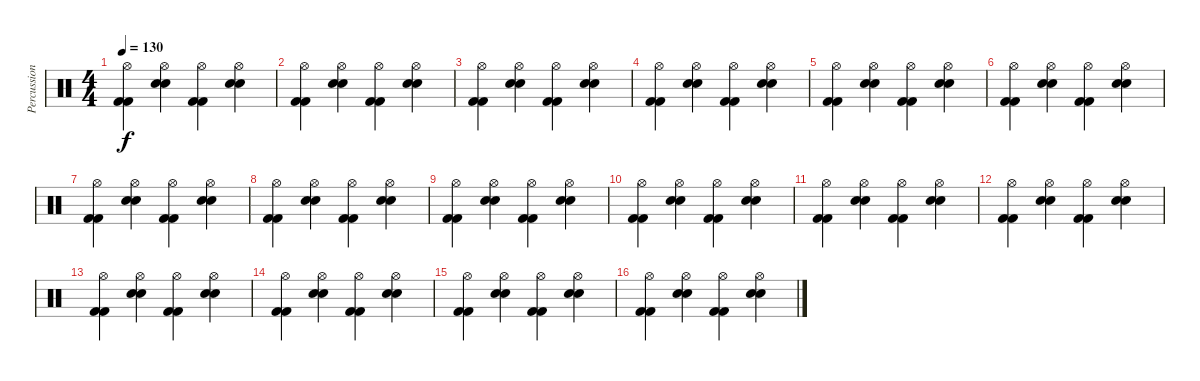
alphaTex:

\track ("Percussion" "Percussion") {instrument percussion}
\staff {score}
\articulation defaults
\ts (4 4)
\tempo 130
\clef neutral
\ks c
("Hi-Hat (open)" "Kick (hit) 2" "Kick (hit) 2").4{dy f} ("Hi-Hat (open)" "Snare (hit) 2" "Snare (hit) 2").4 ("Hi-Hat (open)" "Kick (hit) 2" "Kick (hit) 2").4 ("Hi-Hat (open)" "Snare (hit) 2" "Snare (hit) 2").4 |
("Hi-Hat (open)" "Kick (hit) 2" "Kick (hit) 2").4 ("Hi-Hat (open)" "Snare (hit) 2" "Snare (hit) 2").4 ("Hi-Hat (open)" "Kick (hit) 2" "Kick (hit) 2").4 ("Hi-Hat (open)" "Snare (hit) 2" "Snare (hit) 2").4 |
("Hi-Hat (open)" "Kick (hit) 2" "Kick (hit) 2").4 ("Hi-Hat (open)" "Snare (hit) 2" "Snare (hit) 2").4 ("Hi-Hat (open)" "Kick (hit) 2" "Kick (hit) 2").4 ("Hi-Hat (open)" "Snare (hit) 2" "Snare (hit) 2").4 |
("Hi-Hat (open)" "Kick (hit) 2" "Kick (hit) 2").4 ("Hi-Hat (open)" "Snare (hit) 2" "Snare (hit) 2").4 ("Hi-Hat (open)" "Kick (hit) 2" "Kick (hit) 2").4 ("Hi-Hat (open)" "Snare (hit) 2" "Snare (hit) 2").4 |
("Hi-Hat (open)" "Kick (hit) 2" "Kick (hit) 2").4 ("Hi-Hat (open)" "Snare (hit) 2" "Snare (hit) 2").4 ("Hi-Hat (open)" "Kick (hit) 2" "Kick (hit) 2").4 ("Hi-Hat (open)" "Snare (hit) 2" "Snare (hit) 2").4 |
("Hi-Hat (open)" "Kick (hit) 2" "Kick (hit) 2").4 ("Hi-Hat (open)" "Snare (hit) 2" "Snare (hit) 2").4 ("Hi-Hat (open)" "Kick (hit) 2" "Kick (hit) 2").4 ("Hi-Hat (open)" "Snare (hit) 2" "Snare (hit) 2").4 |
("Hi-Hat (open)" "Kick (hit) 2" "Kick (hit) 2").4 ("Hi-Hat (open)" "Snare (hit) 2" "Snare (hit) 2").4 ("Hi-Hat (open)" "Kick (hit) 2" "Kick (hit) 2").4 ("Hi-Hat (open)" "Snare (hit) 2" "Snare (hit) 2").4 |
("Hi-Hat (open)" "Kick (hit) 2" "Kick (hit) 2").4 ("Hi-Hat (open)" "Snare (hit) 2" "Snare (hit) 2").4 ("Hi-Hat (open)" "Kick (hit) 2" "Kick (hit) 2").4 ("Hi-Hat (open)" "Snare (hit) 2" "Snare (hit) 2").4 |
("Hi-Hat (open)" "Kick (hit) 2" "Kick (hit) 2").4 ("Hi-Hat (open)" "Snare (hit) 2" "Snare (hit) 2").4 ("Hi-Hat (open)" "Kick (hit) 2" "Kick (hit) 2").4 ("Hi-Hat (open)" "Snare (hit) 2" "Snare (hit) 2").4 |
("Hi-Hat (open)" "Kick (hit) 2" "Kick (hit) 2").4 ("Hi-Hat (open)" "Snare (hit) 2" "Snare (hit) 2").4 ("Hi-Hat (open)" "Kick (hit) 2" "Kick (hit) 2").4 ("Hi-Hat (open)" "Snare (hit) 2" "Snare (hit) 2").4 |
("Hi-Hat (open)" "Kick (hit) 2" "Kick (hit) 2").4 ("Hi-Hat (open)" "Snare (hit) 2" "Snare (hit) 2").4 ("Hi-Hat (open)" "Kick (hit) 2" "Kick (hit) 2").4 ("Hi-Hat (open)" "Snare (hit) 2" "Snare (hit) 2").4 |
("Hi-Hat (open)" "Kick (hit) 2" "Kick (hit) 2").4 ("Hi-Hat (open)" "Snare (hit) 2" "Snare (hit) 2").4 ("Hi-Hat (open)" "Kick (hit) 2" "Kick (hit) 2").4 ("Hi-Hat (open)" "Snare (hit) 2" "Snare (hit) 2").4 |
("Hi-Hat (open)" "Kick (hit) 2" "Kick (hit) 2").4 ("Hi-Hat (open)" "Snare (hit) 2" "Snare (hit) 2").4 ("Hi-Hat (open)" "Kick (hit) 2" "Kick (hit) 2").4 ("Hi-Hat (open)" "Snare (hit) 2" "Snare (hit) 2").4 |
("Hi-Hat (open)" "Kick (hit) 2" "Kick (hit) 2").4 ("Hi-Hat (open)" "Snare (hit) 2" "Snare (hit) 2").4 ("Hi-Hat (open)" "Kick (hit) 2" "Kick (hit) 2").4 ("Hi-Hat (open)" "Snare (hit) 2" "Snare (hit) 2").4 |
("Hi-Hat (open)" "Kick (hit) 2" "Kick (hit) 2").4 ("Hi-Hat (open)" "Snare (hit) 2" "Snare (hit) 2").4 ("Hi-Hat (open)" "Kick (hit) 2" "Kick (hit) 2").4 ("Hi-Hat (open)" "Snare (hit) 2" "Snare (hit) 2").4 |
("Hi-Hat (open)" "Kick (hit) 2" "Kick (hit) 2").4 ("Hi-Hat (open)" "Snare (hit) 2" "Snare (hit) 2").4 ("Hi-Hat (open)" "Kick (hit) 2" "Kick (hit) 2").4 ("Hi-Hat (open)" "Snare (hit) 2" "Snare (hit) 2").4
